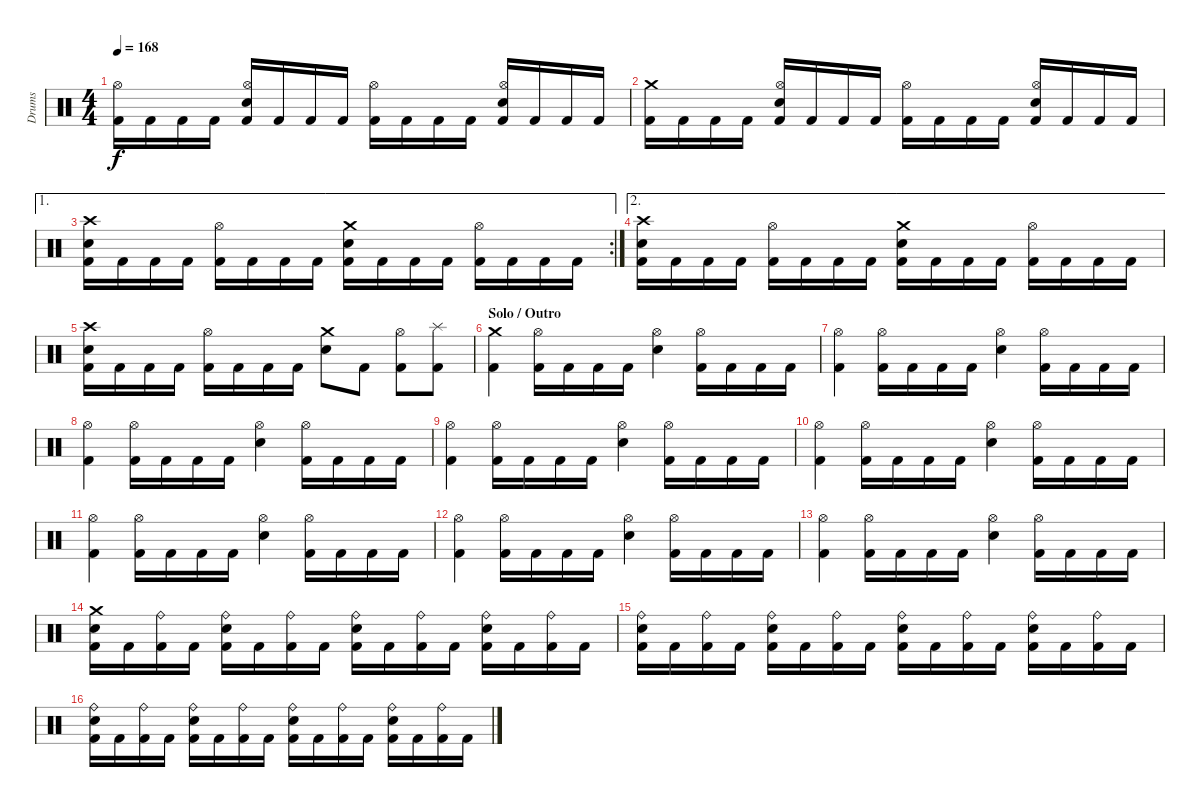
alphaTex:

\track ("Drums" "Drums") {instrument percussion}
\staff {score}
\articulation defaults
\ts (4 4)
\tempo 168
\clef neutral
\ks c
("Kick (hit) 2" "Hi-Hat (open)").16{dy f} "Kick (hit) 2".16 "Kick (hit) 2".16 "Kick (hit) 2".16 ("Kick (hit) 2" "Snare (hit) 2" "Hi-Hat (open)").16 "Kick (hit) 2".16 "Kick (hit) 2".16 "Kick (hit) 2".16 ("Kick (hit) 2" "Hi-Hat (open)").16 "Kick (hit) 2".16 "Kick (hit) 2".16 "Kick (hit) 2".16 ("Kick (hit) 2" "Snare (hit) 2" "Hi-Hat (open)").16 "Kick (hit) 2".16 "Kick (hit) 2".16 "Kick (hit) 2".16 |
("Kick (hit) 2" "Crash medium (hit)").16 "Kick (hit) 2".16 "Kick (hit) 2".16 "Kick (hit) 2".16 ("Kick (hit) 2" "Snare (hit) 2" "Hi-Hat (open)").16 "Kick (hit) 2".16 "Kick (hit) 2".16 "Kick (hit) 2".16 ("Kick (hit) 2" "Hi-Hat (open)").16 "Kick (hit) 2".16 "Kick (hit) 2".16 "Kick (hit) 2".16 ("Kick (hit) 2" "Snare (hit) 2" "Hi-Hat (open)").16 "Kick (hit) 2".16 "Kick (hit) 2".16 "Kick (hit) 2".16 |
\ae 1
\rc 2
("Kick (hit) 2" "Snare (hit) 2" "Crash high (hit)").16 "Kick (hit) 2".16 "Kick (hit) 2".16 "Kick (hit) 2".16 ("Kick (hit) 2" "Hi-Hat (open)").16 "Kick (hit) 2".16 "Kick (hit) 2".16 "Kick (hit) 2".16 ("Kick (hit) 2" "Snare (hit) 2" "Crash medium (hit)").16 "Kick (hit) 2".16 "Kick (hit) 2".16 "Kick (hit) 2".16 ("Kick (hit) 2" "Hi-Hat (open)").16 "Kick (hit) 2".16 "Kick (hit) 2".16 "Kick (hit) 2".16 |
\ae 2
("Kick (hit) 2" "Snare (hit) 2" "Crash high (hit)").16 "Kick (hit) 2".16 "Kick (hit) 2".16 "Kick (hit) 2".16 ("Kick (hit) 2" "Hi-Hat (open)").16 "Kick (hit) 2".16 "Kick (hit) 2".16 "Kick (hit) 2".16 ("Kick (hit) 2" "Snare (hit) 2" "Crash medium (hit)").16 "Kick (hit) 2".16 "Kick (hit) 2".16 "Kick (hit) 2".16 ("Kick (hit) 2" "Hi-Hat (open)").16 "Kick (hit) 2".16 "Kick (hit) 2".16 "Kick (hit) 2".16 |
("Kick (hit) 2" "Snare (hit) 2" "Crash high (hit)").16 "Kick (hit) 2".16 "Kick (hit) 2".16 "Kick (hit) 2".16 ("Kick (hit) 2" "Hi-Hat (open)").16 "Kick (hit) 2".16 "Kick (hit) 2".16 "Kick (hit) 2".16 ("Snare (hit) 2" "Crash medium (hit)").8 "Kick (hit) 2".8 ("Kick (hit) 2" "Hi-Hat (open)").8 ("Kick (hit) 2" "Splash (hit)").8 |
\section ("" "Solo / Outro")
("Kick (hit) 2" "Crash medium (hit)").4 ("Kick (hit) 2" "Hi-Hat (open)").16 "Kick (hit) 2".16 "Kick (hit) 2".16 "Kick (hit) 2".16 ("Electric Snare (hit)" "Hi-Hat (open)").4 ("Kick (hit) 2" "Hi-Hat (open)").16 "Kick (hit) 2".16 "Kick (hit) 2".16 "Kick (hit) 2".16 |
("Kick (hit) 2" "Hi-Hat (open)").4 ("Kick (hit) 2" "Hi-Hat (open)").16 "Kick (hit) 2".16 "Kick (hit) 2".16 "Kick (hit) 2".16 ("Electric Snare (hit)" "Hi-Hat (open)").4 ("Kick (hit) 2" "Hi-Hat (open)").16 "Kick (hit) 2".16 "Kick (hit) 2".16 "Kick (hit) 2".16 |
("Kick (hit) 2" "Hi-Hat (open)").4 ("Kick (hit) 2" "Hi-Hat (open)").16 "Kick (hit) 2".16 "Kick (hit) 2".16 "Kick (hit) 2".16 ("Electric Snare (hit)" "Hi-Hat (open)").4 ("Kick (hit) 2" "Hi-Hat (open)").16 "Kick (hit) 2".16 "Kick (hit) 2".16 "Kick (hit) 2".16 |
("Kick (hit) 2" "Hi-Hat (open)").4 ("Kick (hit) 2" "Hi-Hat (open)").16 "Kick (hit) 2".16 "Kick (hit) 2".16 "Kick (hit) 2".16 ("Electric Snare (hit)" "Hi-Hat (open)").4 ("Kick (hit) 2" "Hi-Hat (open)").16 "Kick (hit) 2".16 "Kick (hit) 2".16 "Kick (hit) 2".16 |
("Kick (hit) 2" "Hi-Hat (open)").4 ("Kick (hit) 2" "Hi-Hat (open)").16 "Kick (hit) 2".16 "Kick (hit) 2".16 "Kick (hit) 2".16 ("Electric Snare (hit)" "Hi-Hat (open)").4 ("Kick (hit) 2" "Hi-Hat (open)").16 "Kick (hit) 2".16 "Kick (hit) 2".16 "Kick (hit) 2".16 |
("Kick (hit) 2" "Hi-Hat (open)").4 ("Kick (hit) 2" "Hi-Hat (open)").16 "Kick (hit) 2".16 "Kick (hit) 2".16 "Kick (hit) 2".16 ("Electric Snare (hit)" "Hi-Hat (open)").4 ("Kick (hit) 2" "Hi-Hat (open)").16 "Kick (hit) 2".16 "Kick (hit) 2".16 "Kick (hit) 2".16 |
("Kick (hit) 2" "Hi-Hat (open)").4 ("Kick (hit) 2" "Hi-Hat (open)").16 "Kick (hit) 2".16 "Kick (hit) 2".16 "Kick (hit) 2".16 ("Electric Snare (hit)" "Hi-Hat (open)").4 ("Kick (hit) 2" "Hi-Hat (open)").16 "Kick (hit) 2".16 "Kick (hit) 2".16 "Kick (hit) 2".16 |
("Kick (hit) 2" "Hi-Hat (open)").4 ("Kick (hit) 2" "Hi-Hat (open)").16 "Kick (hit) 2".16 "Kick (hit) 2".16 "Kick (hit) 2".16 ("Electric Snare (hit)" "Hi-Hat (open)").4 ("Kick (hit) 2" "Hi-Hat (open)").16 "Kick (hit) 2".16 "Kick (hit) 2".16 "Kick (hit) 2".16 |
("Kick (hit) 2" "Snare (hit) 2" "Crash medium (hit)").16 "Kick (hit) 2".16 ("Kick (hit) 2" "Ride (bell)").16 "Kick (hit) 2".16 ("Kick (hit) 2" "Snare (hit) 2" "Ride (bell)").16 "Kick (hit) 2".16 ("Kick (hit) 2" "Ride (bell)").16 "Kick (hit) 2".16 ("Kick (hit) 2" "Snare (hit) 2" "Ride (bell)").16 "Kick (hit) 2".16 ("Kick (hit) 2" "Ride (bell)").16 "Kick (hit) 2".16 ("Kick (hit) 2" "Snare (hit) 2" "Ride (bell)").16 "Kick (hit) 2".16 ("Kick (hit) 2" "Ride (bell)").16 "Kick (hit) 2".16 |
("Kick (hit) 2" "Snare (hit) 2" "Ride (bell)").16 "Kick (hit) 2".16 ("Kick (hit) 2" "Ride (bell)").16 "Kick (hit) 2".16 ("Kick (hit) 2" "Snare (hit) 2" "Ride (bell)").16 "Kick (hit) 2".16 ("Kick (hit) 2" "Ride (bell)").16 "Kick (hit) 2".16 ("Kick (hit) 2" "Snare (hit) 2" "Ride (bell)").16 "Kick (hit) 2".16 ("Kick (hit) 2" "Ride (bell)").16 "Kick (hit) 2".16 ("Kick (hit) 2" "Snare (hit) 2" "Ride (bell)").16 "Kick (hit) 2".16 ("Kick (hit) 2" "Ride (bell)").16 "Kick (hit) 2".16 |
("Kick (hit) 2" "Snare (hit) 2" "Ride (bell)").16 "Kick (hit) 2".16 ("Kick (hit) 2" "Ride (bell)").16 "Kick (hit) 2".16 ("Kick (hit) 2" "Snare (hit) 2" "Ride (bell)").16 "Kick (hit) 2".16 ("Kick (hit) 2" "Ride (bell)").16 "Kick (hit) 2".16 ("Kick (hit) 2" "Snare (hit) 2" "Ride (bell)").16 "Kick (hit) 2".16 ("Kick (hit) 2" "Ride (bell)").16 "Kick (hit) 2".16 ("Kick (hit) 2" "Snare (hit) 2" "Ride (bell)").16 "Kick (hit) 2".16 ("Kick (hit) 2" "Ride (bell)").16 "Kick (hit) 2".16
